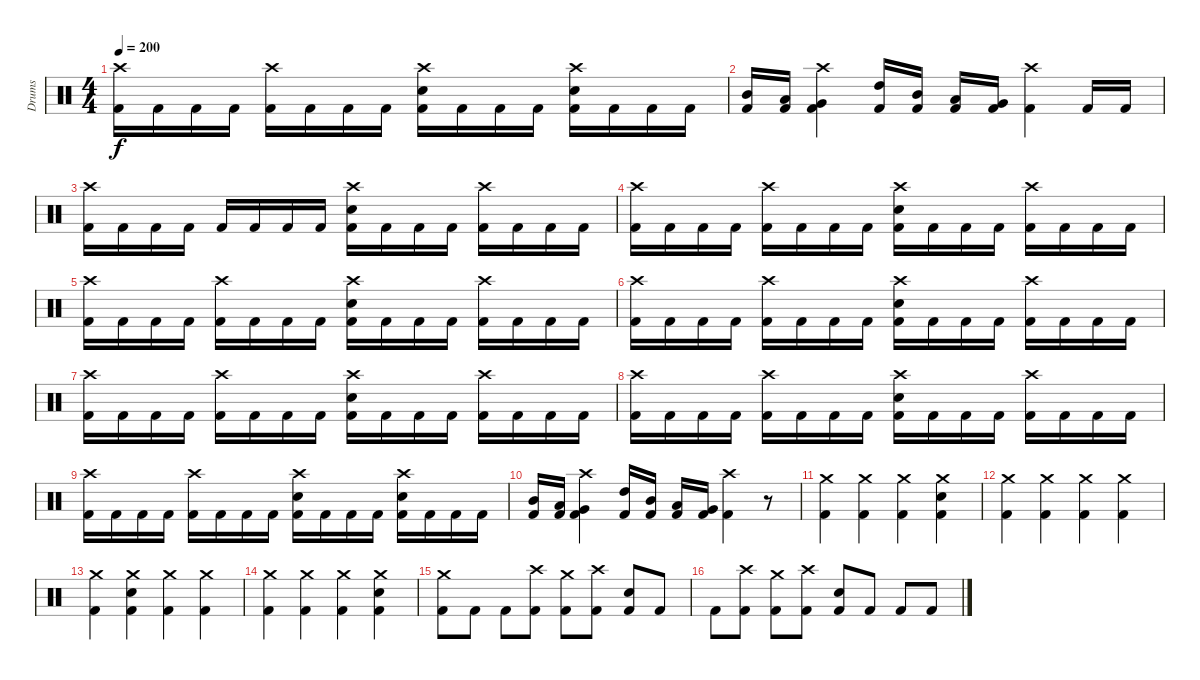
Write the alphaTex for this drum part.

\track ("Drums" "Drums") {instrument percussion}
\staff {score}
\articulation defaults
\ts (4 4)
\tempo 200
\clef neutral
\ks c
("Crash high (hit)" "Kick (hit) 2").16{dy f} "Kick (hit) 2".16 "Kick (hit) 2".16 "Kick (hit) 2".16 ("Crash high (hit)" "Kick (hit) 2").16 "Kick (hit) 2".16 "Kick (hit) 2".16 "Kick (hit) 2".16 ("Crash high (hit)" "Electric Snare (hit)" "Kick (hit) 2").16 "Kick (hit) 2".16 "Kick (hit) 2".16 "Kick (hit) 2".16 ("Crash high (hit)" "Electric Snare (hit)" "Kick (hit) 2").16 "Kick (hit) 2".16 "Kick (hit) 2".16 "Kick (hit) 2".16 |
("Mid Tom (hit)" "Kick (hit) 2").16 ("Low Tom (hit)" "Kick (hit) 2").16 ("Crash high (hit)" "Very Low Tom (hit)" "Kick (hit) 2").4 ("High Tom (hit)" "Kick (hit) 2").16 ("Mid Tom (hit)" "Kick (hit) 2").16 ("Low Tom (hit)" "Kick (hit) 2").16 ("Very Low Tom (hit)" "Kick (hit) 2").16 ("Crash high (hit)" "Kick (hit) 2").4 "Kick (hit) 2".16 "Kick (hit) 2".16 |
("Crash high (hit)" "Kick (hit) 2").16 "Kick (hit) 2".16 "Kick (hit) 2".16 "Kick (hit) 2".16 "Kick (hit) 2".16 "Kick (hit) 2".16 "Kick (hit) 2".16 "Kick (hit) 2".16 ("Crash high (hit)" "Electric Snare (hit)" "Kick (hit) 2").16 "Kick (hit) 2".16 "Kick (hit) 2".16 "Kick (hit) 2".16 ("Crash high (hit)" "Kick (hit) 2").16 "Kick (hit) 2".16 "Kick (hit) 2".16 "Kick (hit) 2".16 |
("Crash high (hit)" "Kick (hit) 2").16 "Kick (hit) 2".16 "Kick (hit) 2".16 "Kick (hit) 2".16 ("Crash high (hit)" "Kick (hit) 2").16 "Kick (hit) 2".16 "Kick (hit) 2".16 "Kick (hit) 2".16 ("Crash high (hit)" "Electric Snare (hit)" "Kick (hit) 2").16 "Kick (hit) 2".16 "Kick (hit) 2".16 "Kick (hit) 2".16 ("Crash high (hit)" "Kick (hit) 2").16 "Kick (hit) 2".16 "Kick (hit) 2".16 "Kick (hit) 2".16 |
("Crash high (hit)" "Kick (hit) 2").16 "Kick (hit) 2".16 "Kick (hit) 2".16 "Kick (hit) 2".16 ("Crash high (hit)" "Kick (hit) 2").16 "Kick (hit) 2".16 "Kick (hit) 2".16 "Kick (hit) 2".16 ("Crash high (hit)" "Electric Snare (hit)" "Kick (hit) 2").16 "Kick (hit) 2".16 "Kick (hit) 2".16 "Kick (hit) 2".16 ("Crash high (hit)" "Kick (hit) 2").16 "Kick (hit) 2".16 "Kick (hit) 2".16 "Kick (hit) 2".16 |
("Crash high (hit)" "Kick (hit) 2").16 "Kick (hit) 2".16 "Kick (hit) 2".16 "Kick (hit) 2".16 ("Crash high (hit)" "Kick (hit) 2").16 "Kick (hit) 2".16 "Kick (hit) 2".16 "Kick (hit) 2".16 ("Crash high (hit)" "Electric Snare (hit)" "Kick (hit) 2").16 "Kick (hit) 2".16 "Kick (hit) 2".16 "Kick (hit) 2".16 ("Crash high (hit)" "Kick (hit) 2").16 "Kick (hit) 2".16 "Kick (hit) 2".16 "Kick (hit) 2".16 |
("Crash high (hit)" "Kick (hit) 2").16 "Kick (hit) 2".16 "Kick (hit) 2".16 "Kick (hit) 2".16 ("Crash high (hit)" "Kick (hit) 2").16 "Kick (hit) 2".16 "Kick (hit) 2".16 "Kick (hit) 2".16 ("Crash high (hit)" "Electric Snare (hit)" "Kick (hit) 2").16 "Kick (hit) 2".16 "Kick (hit) 2".16 "Kick (hit) 2".16 ("Crash high (hit)" "Kick (hit) 2").16 "Kick (hit) 2".16 "Kick (hit) 2".16 "Kick (hit) 2".16 |
("Crash high (hit)" "Kick (hit) 2").16 "Kick (hit) 2".16 "Kick (hit) 2".16 "Kick (hit) 2".16 ("Crash high (hit)" "Kick (hit) 2").16 "Kick (hit) 2".16 "Kick (hit) 2".16 "Kick (hit) 2".16 ("Crash high (hit)" "Electric Snare (hit)" "Kick (hit) 2").16 "Kick (hit) 2".16 "Kick (hit) 2".16 "Kick (hit) 2".16 ("Crash high (hit)" "Kick (hit) 2").16 "Kick (hit) 2".16 "Kick (hit) 2".16 "Kick (hit) 2".16 |
("Crash high (hit)" "Kick (hit) 2").16 "Kick (hit) 2".16 "Kick (hit) 2".16 "Kick (hit) 2".16 ("Crash high (hit)" "Kick (hit) 2").16 "Kick (hit) 2".16 "Kick (hit) 2".16 "Kick (hit) 2".16 ("Crash high (hit)" "Electric Snare (hit)" "Kick (hit) 2").16 "Kick (hit) 2".16 "Kick (hit) 2".16 "Kick (hit) 2".16 ("Crash high (hit)" "Electric Snare (hit)" "Kick (hit) 2").16 "Kick (hit) 2".16 "Kick (hit) 2".16 "Kick (hit) 2".16 |
("Mid Tom (hit)" "Kick (hit) 2").16 ("Low Tom (hit)" "Kick (hit) 2").16 ("Crash high (hit)" "Very Low Tom (hit)" "Kick (hit) 2").4 ("High Tom (hit)" "Kick (hit) 2").16 ("Mid Tom (hit)" "Kick (hit) 2").16 ("Low Tom (hit)" "Kick (hit) 2").16 ("Very Low Tom (hit)" "Kick (hit) 2").16 ("Crash high (hit)" "Kick (hit) 2").4 r.8 |
("Crash medium (hit)" "Kick (hit) 2").4 ("Crash medium (hit)" "Kick (hit) 2").4 ("Crash medium (hit)" "Kick (hit) 2").4 ("Crash medium (hit)" "Electric Snare (hit)" "Kick (hit) 2").4 |
("Crash medium (hit)" "Kick (hit) 2").4 ("Crash medium (hit)" "Kick (hit) 2").4 ("Crash medium (hit)" "Kick (hit) 2").4 ("Crash medium (hit)" "Kick (hit) 2").4 |
("Crash medium (hit)" "Kick (hit) 2").4 ("Crash medium (hit)" "Electric Snare (hit)" "Kick (hit) 2").4 ("Crash medium (hit)" "Kick (hit) 2").4 ("Crash medium (hit)" "Kick (hit) 2").4 |
("Crash medium (hit)" "Kick (hit) 2").4 ("Crash medium (hit)" "Kick (hit) 2").4 ("Crash medium (hit)" "Kick (hit) 2").4 ("Crash medium (hit)" "Electric Snare (hit)" "Kick (hit) 2").4 |
("Crash medium (hit)" "Kick (hit) 2").8 "Kick (hit) 2".8 "Kick (hit) 2".8 ("Crash high (hit)" "Kick (hit) 2").8 ("Crash medium (hit)" "Kick (hit) 2").8 ("Crash high (hit)" "Kick (hit) 2").8 ("Electric Snare (hit)" "Kick (hit) 2").8 "Kick (hit) 2".8 |
"Kick (hit) 2".8 ("Crash high (hit)" "Kick (hit) 2").8 ("Crash medium (hit)" "Kick (hit) 2").8 ("Crash high (hit)" "Kick (hit) 2").8 ("Electric Snare (hit)" "Kick (hit) 2").8 "Kick (hit) 2".8 "Kick (hit) 2".8 "Kick (hit) 2".8
